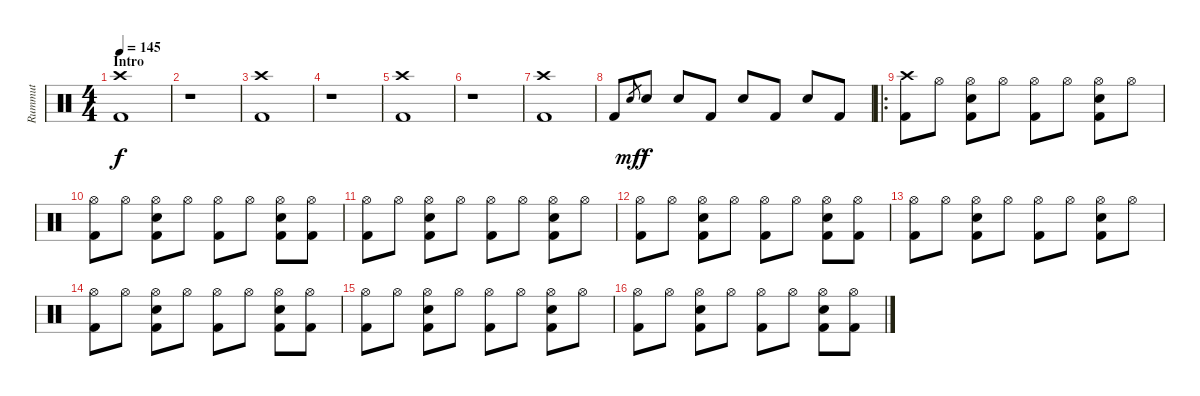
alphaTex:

\track ("Rummut" "Rummut") {instrument percussion}
\staff {score}
\articulation defaults
\ts (4 4)
\section ("" "Intro")
\tempo 145
\clef neutral
\ks c
("Crash high (hit)" "Kick (hit) 2").1{dy f} |
r.1 |
("Crash high (hit)" "Kick (hit) 2").1 |
r.1 |
("Crash high (hit)" "Kick (hit) 2").1 |
r.1 |
("Crash high (hit)" "Kick (hit) 2").1 |
"Kick (hit) 2".8 "Electric Snare (hit)".8{gr dy mf} "Electric Snare (hit)".8{dy f} "Electric Snare (hit)".8 "Kick (hit) 2".8 "Electric Snare (hit)".8 "Kick (hit) 2".8 "Electric Snare (hit)".8 "Kick (hit) 2".8 |
\ro
("Crash high (hit)" "Kick (hit) 2").8 "Hi-Hat (open)".8 ("Hi-Hat (open)" "Electric Snare (hit)" "Kick (hit) 2").8 "Hi-Hat (open)".8 ("Hi-Hat (open)" "Kick (hit) 2").8 "Hi-Hat (open)".8 ("Hi-Hat (open)" "Electric Snare (hit)" "Kick (hit) 2").8 "Hi-Hat (open)".8 |
("Hi-Hat (open)" "Kick (hit) 2").8 "Hi-Hat (open)".8 ("Hi-Hat (open)" "Electric Snare (hit)" "Kick (hit) 2").8 "Hi-Hat (open)".8 ("Hi-Hat (open)" "Kick (hit) 2").8 "Hi-Hat (open)".8 ("Hi-Hat (open)" "Electric Snare (hit)" "Kick (hit) 2").8 ("Hi-Hat (open)" "Kick (hit) 2").8 |
("Hi-Hat (open)" "Kick (hit) 2").8 "Hi-Hat (open)".8 ("Hi-Hat (open)" "Electric Snare (hit)" "Kick (hit) 2").8 "Hi-Hat (open)".8 ("Hi-Hat (open)" "Kick (hit) 2").8 "Hi-Hat (open)".8 ("Hi-Hat (open)" "Electric Snare (hit)" "Kick (hit) 2").8 "Hi-Hat (open)".8 |
("Hi-Hat (open)" "Kick (hit) 2").8 "Hi-Hat (open)".8 ("Hi-Hat (open)" "Electric Snare (hit)" "Kick (hit) 2").8 "Hi-Hat (open)".8 ("Hi-Hat (open)" "Kick (hit) 2").8 "Hi-Hat (open)".8 ("Hi-Hat (open)" "Electric Snare (hit)" "Kick (hit) 2").8 ("Hi-Hat (open)" "Kick (hit) 2").8 |
("Hi-Hat (open)" "Kick (hit) 2").8 "Hi-Hat (open)".8 ("Hi-Hat (open)" "Electric Snare (hit)" "Kick (hit) 2").8 "Hi-Hat (open)".8 ("Hi-Hat (open)" "Kick (hit) 2").8 "Hi-Hat (open)".8 ("Hi-Hat (open)" "Electric Snare (hit)" "Kick (hit) 2").8 "Hi-Hat (open)".8 |
("Hi-Hat (open)" "Kick (hit) 2").8 "Hi-Hat (open)".8 ("Hi-Hat (open)" "Electric Snare (hit)" "Kick (hit) 2").8 "Hi-Hat (open)".8 ("Hi-Hat (open)" "Kick (hit) 2").8 "Hi-Hat (open)".8 ("Hi-Hat (open)" "Electric Snare (hit)" "Kick (hit) 2").8 ("Hi-Hat (open)" "Kick (hit) 2").8 |
("Hi-Hat (open)" "Kick (hit) 2").8 "Hi-Hat (open)".8 ("Hi-Hat (open)" "Electric Snare (hit)" "Kick (hit) 2").8 "Hi-Hat (open)".8 ("Hi-Hat (open)" "Kick (hit) 2").8 "Hi-Hat (open)".8 ("Hi-Hat (open)" "Electric Snare (hit)" "Kick (hit) 2").8 "Hi-Hat (open)".8 |
("Hi-Hat (open)" "Kick (hit) 2").8 "Hi-Hat (open)".8 ("Hi-Hat (open)" "Electric Snare (hit)" "Kick (hit) 2").8 "Hi-Hat (open)".8 ("Hi-Hat (open)" "Kick (hit) 2").8 "Hi-Hat (open)".8 ("Hi-Hat (open)" "Electric Snare (hit)" "Kick (hit) 2").8 ("Hi-Hat (open)" "Kick (hit) 2").8
